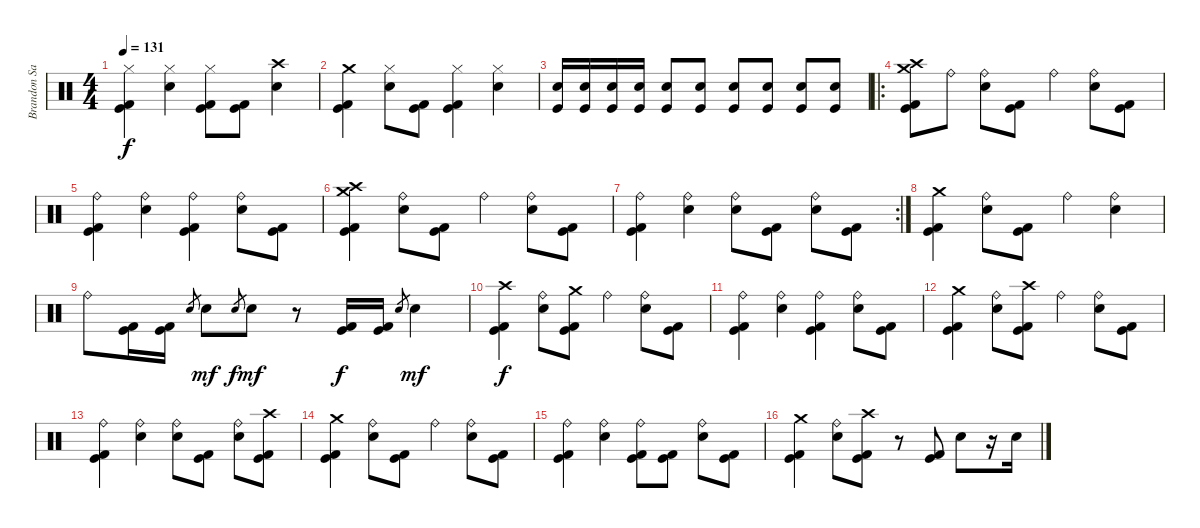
\track ("Brandon Saller" "Brandon Sa") {instrument percussion}
\staff {score}
\articulation defaults
\ts (4 4)
\tempo 131
\clef neutral
\ks c
("Hi-Hat (closed)" "Kick (hit) 2" "Kick (hit)").4{dy f} ("Hi-Hat (closed)" "Electric Snare (hit)").4 ("Hi-Hat (closed)" "Kick (hit)" "Kick (hit) 2").8 ("Kick (hit)" "Kick (hit) 2").8 ("Crash high (hit)" "Electric Snare (hit)").4 |
("Crash medium (hit)" "Kick (hit) 2" "Kick (hit)").4 ("Hi-Hat (closed)" "Electric Snare (hit)").8 ("Kick (hit) 2" "Kick (hit)").8 ("Hi-Hat (closed)" "Kick (hit) 2" "Kick (hit)").4 ("Hi-Hat (closed)" "Electric Snare (hit)").4 |
("Electric Snare (hit)" "Kick (hit)").16 ("Electric Snare (hit)" "Kick (hit)").16 ("Electric Snare (hit)" "Kick (hit)").16 ("Electric Snare (hit)" "Kick (hit)").16 ("Electric Snare (hit)" "Kick (hit)").8 ("Electric Snare (hit)" "Kick (hit)").8 ("Electric Snare (hit)" "Kick (hit)").8 ("Electric Snare (hit)" "Kick (hit)").8 ("Electric Snare (hit)" "Kick (hit)").8 ("Electric Snare (hit)" "Kick (hit)").8 |
\ro
("Crash medium (hit)" "Crash high (hit)" "Kick (hit) 2" "Kick (hit)").8 "Ride (bell)".8 ("Ride (bell)" "Electric Snare (hit)").8 ("Kick (hit) 2" "Kick (hit)").8 "Ride (bell)".4 ("Ride (bell)" "Electric Snare (hit)").8 ("Kick (hit) 2" "Kick (hit)").8 |
("Ride (bell)" "Kick (hit) 2" "Kick (hit)").4 ("Ride (bell)" "Electric Snare (hit)").4 ("Ride (bell)" "Kick (hit) 2" "Kick (hit)").4 ("Ride (bell)" "Electric Snare (hit)").8 ("Kick (hit) 2" "Kick (hit)").8 |
("Crash medium (hit)" "Crash high (hit)" "Kick (hit) 2" "Kick (hit)").4 ("Ride (bell)" "Electric Snare (hit)").8 ("Kick (hit) 2" "Kick (hit)").8 "Ride (bell)".4 ("Ride (bell)" "Electric Snare (hit)").8 ("Kick (hit) 2" "Kick (hit)").8 |
\rc 2
("Ride (bell)" "Kick (hit) 2" "Kick (hit)").4 ("Ride (bell)" "Electric Snare (hit)").4 ("Ride (bell)" "Electric Snare (hit)").8 ("Kick (hit) 2" "Kick (hit)").8 ("Ride (bell)" "Electric Snare (hit)").8 ("Kick (hit) 2" "Kick (hit)").8 |
("Crash medium (hit)" "Kick (hit) 2" "Kick (hit)").4 ("Ride (bell)" "Electric Snare (hit)").8 ("Kick (hit) 2" "Kick (hit)").8 "Ride (bell)".4 ("Ride (bell)" "Electric Snare (hit)").4 |
"Ride (bell)".8 ("Kick (hit) 2" "Kick (hit)").16 ("Kick (hit) 2" "Kick (hit)").16 "Electric Snare (hit)".8{gr} "Electric Snare (hit)".8{dy mf} "Electric Snare (hit)".8{gr dy f} "Electric Snare (hit)".8{dy mf} r.8 ("Kick (hit) 2" "Kick (hit)").16{dy f} ("Kick (hit) 2" "Kick (hit)").16 "Electric Snare (hit)".8{gr} "Electric Snare (hit)".4{dy mf} |
("Crash high (hit)" "Kick (hit) 2" "Kick (hit)").4{dy f} ("Ride (bell)" "Electric Snare (hit)").8 ("Crash medium (hit)" "Kick (hit)" "Kick (hit) 2").8 "Ride (bell)".4 ("Ride (bell)" "Electric Snare (hit)").8 ("Kick (hit) 2" "Kick (hit)").8 |
("Ride (bell)" "Kick (hit)" "Kick (hit) 2").4 ("Ride (bell)" "Electric Snare (hit)").4 ("Ride (bell)" "Kick (hit)" "Kick (hit) 2").4 ("Ride (bell)" "Electric Snare (hit)").8 ("Kick (hit) 2" "Kick (hit)").8 |
("Crash medium (hit)" "Kick (hit)" "Kick (hit) 2").4 ("Ride (bell)" "Electric Snare (hit)").8 ("Crash high (hit)" "Kick (hit) 2" "Kick (hit)").8 "Ride (bell)".4 ("Ride (bell)" "Electric Snare (hit)").8 ("Kick (hit) 2" "Kick (hit)").8 |
("Ride (bell)" "Kick (hit) 2" "Kick (hit)").4 ("Ride (bell)" "Electric Snare (hit)").4 ("Ride (bell)" "Electric Snare (hit)").8 ("Kick (hit) 2" "Kick (hit)").8 ("Ride (bell)" "Electric Snare (hit)").8 ("Crash high (hit)" "Kick (hit) 2" "Kick (hit)").8 |
("Crash medium (hit)" "Kick (hit) 2" "Kick (hit)").4 ("Ride (bell)" "Electric Snare (hit)").8 ("Kick (hit) 2" "Kick (hit)").8 "Ride (bell)".4 ("Ride (bell)" "Electric Snare (hit)").8 ("Kick (hit) 2" "Kick (hit)").8 |
("Ride (bell)" "Kick (hit) 2" "Kick (hit)").4 ("Ride (bell)" "Electric Snare (hit)").4 ("Ride (bell)" "Kick (hit) 2" "Kick (hit)").8 ("Kick (hit) 2" "Kick (hit)").8 ("Ride (bell)" "Electric Snare (hit)").8 ("Kick (hit) 2" "Kick (hit)").8 |
("Crash medium (hit)" "Kick (hit) 2" "Kick (hit)").4 ("Ride (bell)" "Electric Snare (hit)").8 ("Crash high (hit)" "Kick (hit)" "Kick (hit) 2").8 r.8 ("Kick (hit) 2" "Kick (hit)").8 "Electric Snare (hit)".8 r.16 "Electric Snare (hit)".16
